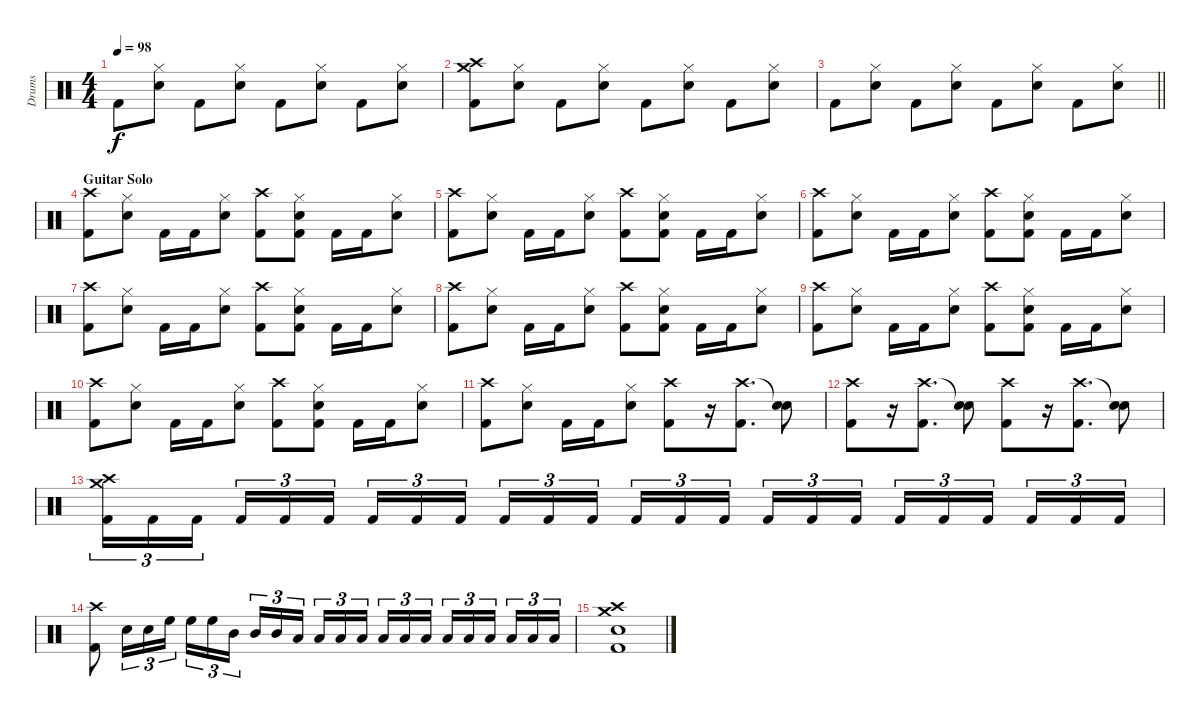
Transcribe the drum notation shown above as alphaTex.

\track ("Drums" "Drums") {instrument percussion}
\staff {score}
\articulation defaults
\ts (4 4)
\tempo 98
\clef neutral
\ks c "Kick (hit) 2".8{dy f}
("Hi-Hat (closed)" "Snare (hit) 2").8 "Kick (hit) 2".8 ("Hi-Hat (closed)" "Snare (hit) 2").8 "Kick (hit) 2".8 ("Hi-Hat (closed)" "Snare (hit) 2").8 "Kick (hit) 2".8 ("Hi-Hat (closed)" "Snare (hit) 2").8 |
("Crash medium (hit)" "Crash high (hit)" "Kick (hit) 2").8 ("Hi-Hat (closed)" "Snare (hit) 2").8 "Kick (hit) 2".8 ("Hi-Hat (closed)" "Snare (hit) 2").8 "Kick (hit) 2".8 ("Hi-Hat (closed)" "Snare (hit) 2").8 "Kick (hit) 2".8 ("Hi-Hat (closed)" "Snare (hit) 2").8 |
\barLineRight lightlight "Kick (hit) 2".8
("Hi-Hat (closed)" "Snare (hit) 2").8 "Kick (hit) 2".8 ("Hi-Hat (closed)" "Snare (hit) 2").8 "Kick (hit) 2".8 ("Hi-Hat (closed)" "Snare (hit) 2").8 "Kick (hit) 2".8 ("Hi-Hat (closed)" "Snare (hit) 2").8 |
\section ("" "Guitar Solo")
("Crash high (hit)" "Kick (hit) 2").8 ("Hi-Hat (closed)" "Snare (hit) 2").8 "Kick (hit) 2".16 "Kick (hit) 2".16 ("Hi-Hat (closed)" "Snare (hit) 2").8 ("Crash high (hit)" "Kick (hit) 2").8 ("Hi-Hat (closed)" "Snare (hit) 2" "Kick (hit) 2").8 "Kick (hit) 2".16 "Kick (hit) 2".16 ("Hi-Hat (closed)" "Snare (hit) 2").8 |
("Crash high (hit)" "Kick (hit) 2").8 ("Hi-Hat (closed)" "Snare (hit) 2").8 "Kick (hit) 2".16 "Kick (hit) 2".16 ("Hi-Hat (closed)" "Snare (hit) 2").8 ("Crash high (hit)" "Kick (hit) 2").8 ("Hi-Hat (closed)" "Snare (hit) 2" "Kick (hit) 2").8 "Kick (hit) 2".16 "Kick (hit) 2".16 ("Hi-Hat (closed)" "Snare (hit) 2").8 |
("Crash high (hit)" "Kick (hit) 2").8 ("Hi-Hat (closed)" "Snare (hit) 2").8 "Kick (hit) 2".16 "Kick (hit) 2".16 ("Hi-Hat (closed)" "Snare (hit) 2").8 ("Crash high (hit)" "Kick (hit) 2").8 ("Hi-Hat (closed)" "Snare (hit) 2" "Kick (hit) 2").8 "Kick (hit) 2".16 "Kick (hit) 2".16 ("Hi-Hat (closed)" "Snare (hit) 2").8 |
("Crash high (hit)" "Kick (hit) 2").8 ("Hi-Hat (closed)" "Snare (hit) 2").8 "Kick (hit) 2".16 "Kick (hit) 2".16 ("Hi-Hat (closed)" "Snare (hit) 2").8 ("Crash high (hit)" "Kick (hit) 2").8 ("Hi-Hat (closed)" "Snare (hit) 2" "Kick (hit) 2").8 "Kick (hit) 2".16 "Kick (hit) 2".16 ("Hi-Hat (closed)" "Snare (hit) 2").8 |
("Crash high (hit)" "Kick (hit) 2").8 ("Hi-Hat (closed)" "Snare (hit) 2").8 "Kick (hit) 2".16 "Kick (hit) 2".16 ("Hi-Hat (closed)" "Snare (hit) 2").8 ("Crash high (hit)" "Kick (hit) 2").8 ("Hi-Hat (closed)" "Snare (hit) 2" "Kick (hit) 2").8 "Kick (hit) 2".16 "Kick (hit) 2".16 ("Hi-Hat (closed)" "Snare (hit) 2").8 |
("Crash high (hit)" "Kick (hit) 2").8 ("Hi-Hat (closed)" "Snare (hit) 2").8 "Kick (hit) 2".16 "Kick (hit) 2".16 ("Hi-Hat (closed)" "Snare (hit) 2").8 ("Crash high (hit)" "Kick (hit) 2").8 ("Hi-Hat (closed)" "Snare (hit) 2" "Kick (hit) 2").8 "Kick (hit) 2".16 "Kick (hit) 2".16 ("Hi-Hat (closed)" "Snare (hit) 2").8 |
("Crash high (hit)" "Kick (hit) 2").8 ("Hi-Hat (closed)" "Snare (hit) 2").8 "Kick (hit) 2".16 "Kick (hit) 2".16 ("Hi-Hat (closed)" "Snare (hit) 2").8 ("Crash high (hit)" "Kick (hit) 2").8 ("Hi-Hat (closed)" "Snare (hit) 2" "Kick (hit) 2").8 "Kick (hit) 2".16 "Kick (hit) 2".16 ("Hi-Hat (closed)" "Snare (hit) 2").8 |
("Crash high (hit)" "Kick (hit) 2").8 ("Hi-Hat (closed)" "Snare (hit) 2").8 "Kick (hit) 2".16 "Kick (hit) 2".16 ("Hi-Hat (closed)" "Snare (hit) 2").8 ("Crash high (hit)" "Kick (hit) 2").8 r.16 ("Crash high (hit)" "Kick (hit) 2").8{d} ("Snare (hit)"{t} "Snare (hit) 2").8 |
("Crash high (hit)" "Kick (hit) 2").8 r.16 ("Crash high (hit)" "Kick (hit) 2").8{d} ("Snare (hit)"{t} "Snare (hit) 2").8 ("Crash high (hit)" "Kick (hit) 2").8 r.16 ("Crash high (hit)" "Kick (hit) 2").8{d} ("Snare (hit)"{t} "Snare (hit) 2").8 |
("Crash medium (hit)" "Crash high (hit)" "Kick (hit) 2").16{tu (3 2)} "Kick (hit) 2".16{tu (3 2)} "Kick (hit) 2".16{tu (3 2) beam splitsecondary} "Kick (hit) 2".16{tu (3 2)} "Kick (hit) 2".16{tu (3 2)} "Kick (hit) 2".16{tu (3 2)} "Kick (hit) 2".16{tu (3 2)} "Kick (hit) 2".16{tu (3 2)} "Kick (hit) 2".16{tu (3 2) beam splitsecondary} "Kick (hit) 2".16{tu (3 2)} "Kick (hit) 2".16{tu (3 2)} "Kick (hit) 2".16{tu (3 2)} "Kick (hit) 2".16{tu (3 2)} "Kick (hit) 2".16{tu (3 2)} "Kick (hit) 2".16{tu (3 2) beam splitsecondary} "Kick (hit) 2".16{tu (3 2)} "Kick (hit) 2".16{tu (3 2)} "Kick (hit) 2".16{tu (3 2)} "Kick (hit) 2".16{tu (3 2)} "Kick (hit) 2".16{tu (3 2)} "Kick (hit) 2".16{tu (3 2) beam splitsecondary} "Kick (hit) 2".16{tu (3 2)} "Kick (hit) 2".16{tu (3 2)} "Kick (hit) 2".16{tu (3 2)} |
("Crash high (hit)" "Kick (hit) 2").8 "Snare (hit) 2".16{tu (3 2)} "Snare (hit) 2".16{tu (3 2)} "High Floor Tom (hit)".16{tu (3 2)} "High Floor Tom (hit)".16{tu (3 2)} "High Floor Tom (hit)".16{tu (3 2)} "Mid Tom (hit)".16{tu (3 2) beam splitsecondary} "Mid Tom (hit)".16{tu (3 2)} "Mid Tom (hit)".16{tu (3 2)} "Low Tom (hit)".16{tu (3 2)} "Low Tom (hit)".16{tu (3 2)} "Low Tom (hit)".16{tu (3 2)} "Low Floor Tom (hit)".16{tu (3 2) beam splitsecondary} "Low Floor Tom (hit)".16{tu (3 2)} "Low Floor Tom (hit)".16{tu (3 2)} "Low Floor Tom (hit)".16{tu (3 2)} "Low Floor Tom (hit)".16{tu (3 2)} "Low Floor Tom (hit)".16{tu (3 2)} "Low Floor Tom (hit)".16{tu (3 2) beam splitsecondary} "Low Floor Tom (hit)".16{tu (3 2)} "Low Floor Tom (hit)".16{tu (3 2)} "Low Floor Tom (hit)".16{tu (3 2)} |
("Crash high (hit)" "Crash medium (hit)" "Snare (hit) 2" "Kick (hit) 2").1
